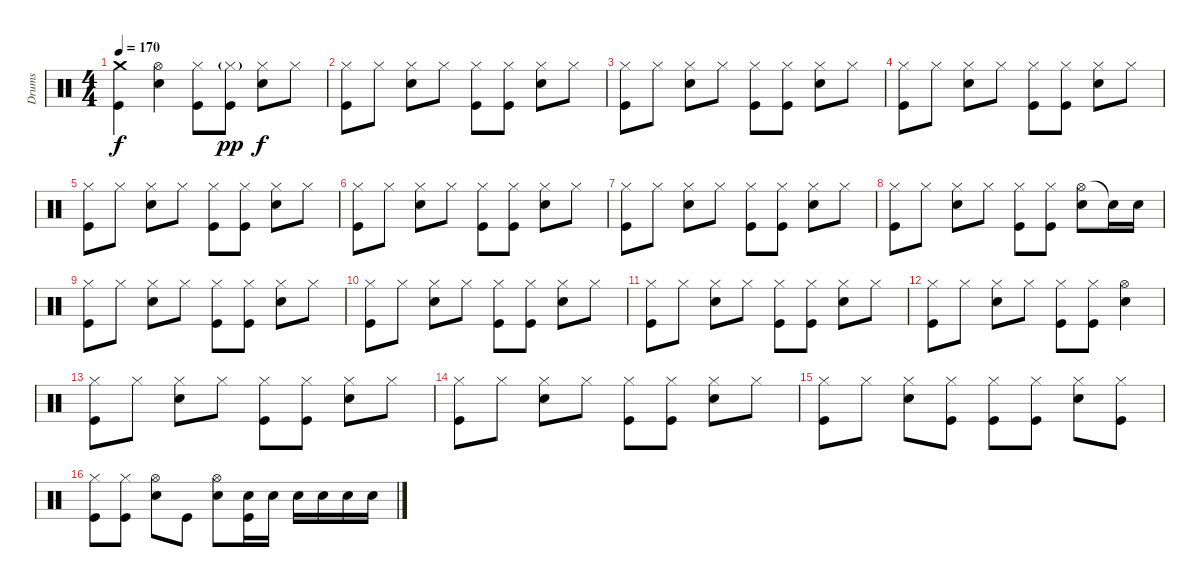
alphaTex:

\track ("Drums" "Drums") {instrument percussion}
\staff {score}
\articulation defaults
\ts (4 4)
\tempo 170
\clef neutral
\ks c
("Crash medium (hit)" "Kick (hit)").4{dy f} ("Hi-Hat (open)" "Snare (hit) 2").4 ("Hi-Hat (closed)" "Kick (hit)").8 ("Hi-Hat (closed)"{g} "Kick (hit)").8{dy pp} ("Hi-Hat (closed)" "Snare (hit) 2").8{dy f} "Hi-Hat (closed)".8 |
("Hi-Hat (closed)" "Kick (hit)").8 "Hi-Hat (closed)".8 ("Hi-Hat (closed)" "Snare (hit) 2").8 "Hi-Hat (closed)".8 ("Hi-Hat (closed)" "Kick (hit)").8 ("Hi-Hat (closed)" "Kick (hit)").8 ("Hi-Hat (closed)" "Snare (hit) 2").8 "Hi-Hat (closed)".8 |
("Hi-Hat (closed)" "Kick (hit)").8 "Hi-Hat (closed)".8 ("Hi-Hat (closed)" "Snare (hit) 2").8 "Hi-Hat (closed)".8 ("Hi-Hat (closed)" "Kick (hit)").8 ("Hi-Hat (closed)" "Kick (hit)").8 ("Hi-Hat (closed)" "Snare (hit) 2").8 "Hi-Hat (closed)".8 |
("Hi-Hat (closed)" "Kick (hit)").8 "Hi-Hat (closed)".8 ("Hi-Hat (closed)" "Snare (hit) 2").8 "Hi-Hat (closed)".8 ("Hi-Hat (closed)" "Kick (hit)").8 ("Hi-Hat (closed)" "Kick (hit)").8 ("Hi-Hat (closed)" "Snare (hit) 2").8 "Hi-Hat (closed)".8 |
("Hi-Hat (closed)" "Kick (hit)").8 "Hi-Hat (closed)".8 ("Hi-Hat (closed)" "Snare (hit) 2").8 "Hi-Hat (closed)".8 ("Hi-Hat (closed)" "Kick (hit)").8 ("Hi-Hat (closed)" "Kick (hit)").8 ("Hi-Hat (closed)" "Snare (hit) 2").8 "Hi-Hat (closed)".8 |
("Hi-Hat (closed)" "Kick (hit)").8 "Hi-Hat (closed)".8 ("Hi-Hat (closed)" "Snare (hit) 2").8 "Hi-Hat (closed)".8 ("Hi-Hat (closed)" "Kick (hit)").8 ("Hi-Hat (closed)" "Kick (hit)").8 ("Hi-Hat (closed)" "Snare (hit) 2").8 "Hi-Hat (closed)".8 |
("Hi-Hat (closed)" "Kick (hit)").8 "Hi-Hat (closed)".8 ("Hi-Hat (closed)" "Snare (hit) 2").8 "Hi-Hat (closed)".8 ("Hi-Hat (closed)" "Kick (hit)").8 ("Hi-Hat (closed)" "Kick (hit)").8 ("Hi-Hat (closed)" "Snare (hit) 2").8 "Hi-Hat (closed)".8 |
("Hi-Hat (closed)" "Kick (hit)").8 "Hi-Hat (closed)".8 ("Hi-Hat (closed)" "Snare (hit) 2").8 "Hi-Hat (closed)".8 ("Hi-Hat (closed)" "Kick (hit)").8 ("Hi-Hat (closed)" "Kick (hit)").8 ("Hi-Hat (open)" "Snare (hit) 2").8 "Snare (hit)"{t}.16 "Snare (hit) 2".16 |
("Hi-Hat (closed)" "Kick (hit)").8 "Hi-Hat (closed)".8 ("Hi-Hat (closed)" "Snare (hit) 2").8 "Hi-Hat (closed)".8 ("Hi-Hat (closed)" "Kick (hit)").8 ("Hi-Hat (closed)" "Kick (hit)").8 ("Hi-Hat (closed)" "Snare (hit) 2").8 "Hi-Hat (closed)".8 |
("Hi-Hat (closed)" "Kick (hit)").8 "Hi-Hat (closed)".8 ("Hi-Hat (closed)" "Snare (hit) 2").8 "Hi-Hat (closed)".8 ("Hi-Hat (closed)" "Kick (hit)").8 ("Hi-Hat (closed)" "Kick (hit)").8 ("Hi-Hat (closed)" "Snare (hit) 2").8 "Hi-Hat (closed)".8 |
("Hi-Hat (closed)" "Kick (hit)").8 "Hi-Hat (closed)".8 ("Hi-Hat (closed)" "Snare (hit) 2").8 "Hi-Hat (closed)".8 ("Hi-Hat (closed)" "Kick (hit)").8 ("Hi-Hat (closed)" "Kick (hit)").8 ("Hi-Hat (closed)" "Snare (hit) 2").8 "Hi-Hat (closed)".8 |
("Hi-Hat (closed)" "Kick (hit)").8 "Hi-Hat (closed)".8 ("Hi-Hat (closed)" "Snare (hit) 2").8 "Hi-Hat (closed)".8 ("Hi-Hat (closed)" "Kick (hit)").8 ("Hi-Hat (closed)" "Kick (hit)").8 ("Hi-Hat (open)" "Snare (hit) 2").4 |
("Hi-Hat (closed)" "Kick (hit)").8 "Hi-Hat (closed)".8 ("Hi-Hat (closed)" "Snare (hit) 2").8 "Hi-Hat (closed)".8 ("Hi-Hat (closed)" "Kick (hit)").8 ("Hi-Hat (closed)" "Kick (hit)").8 ("Hi-Hat (closed)" "Snare (hit) 2").8 "Hi-Hat (closed)".8 |
("Hi-Hat (closed)" "Kick (hit)").8 "Hi-Hat (closed)".8 ("Hi-Hat (closed)" "Snare (hit) 2").8 "Hi-Hat (closed)".8 ("Hi-Hat (closed)" "Kick (hit)").8 ("Hi-Hat (closed)" "Kick (hit)").8 ("Hi-Hat (closed)" "Snare (hit) 2").8 "Hi-Hat (closed)".8 |
("Hi-Hat (closed)" "Kick (hit)").8 "Hi-Hat (closed)".8 ("Hi-Hat (closed)" "Snare (hit) 2").8 ("Hi-Hat (closed)" "Kick (hit)").8 ("Hi-Hat (closed)" "Kick (hit)").8 ("Hi-Hat (closed)" "Kick (hit)").8 ("Hi-Hat (closed)" "Snare (hit) 2").8 ("Hi-Hat (closed)" "Kick (hit)").8 |
("Hi-Hat (closed)" "Kick (hit)").8 ("Hi-Hat (closed)" "Kick (hit)").8 ("Hi-Hat (open)" "Snare (hit) 2").8 "Kick (hit)".8 ("Hi-Hat (open)" "Snare (hit) 2").8 ("Snare (hit) 2" "Kick (hit)").16 "Snare (hit) 2".16 "Snare (hit) 2".16 "Snare (hit) 2".16 "Snare (hit) 2".16 "Snare (hit) 2".16
